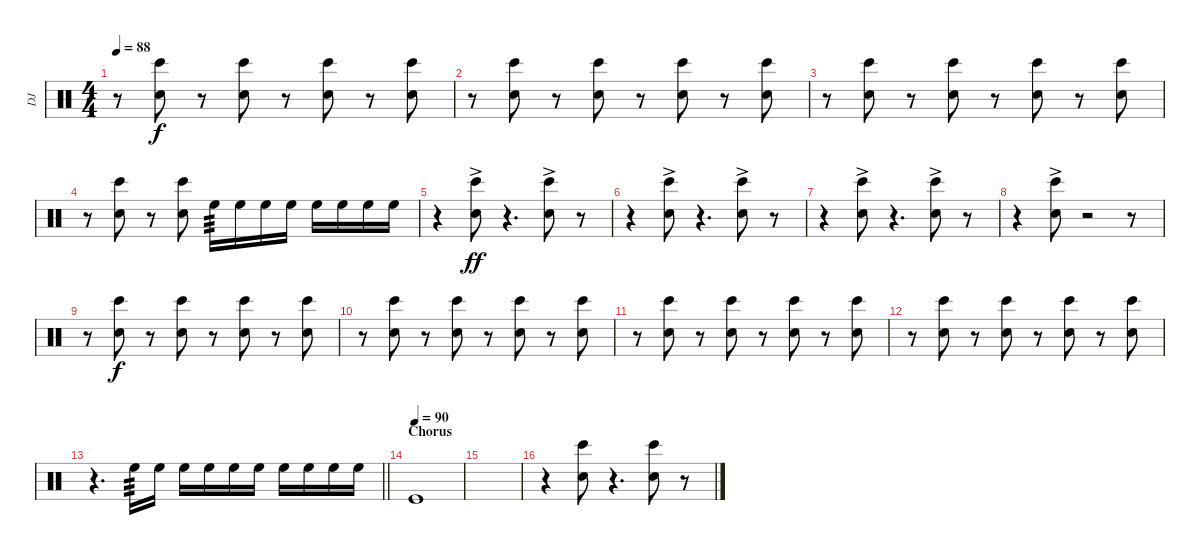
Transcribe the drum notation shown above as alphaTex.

\track ("DJ" "DJ") {instrument percussion}
\staff {score}
\articulation defaults
\ts (4 4)
\tempo 88
\clef neutral
\ks c
r.8{dy f} ("Bongo High (hit)" "Hand Clap (hit)").8 r.8 ("Bongo High (hit)" "Hand Clap (hit)").8 r.8 ("Bongo High (hit)" "Hand Clap (hit)").8 r.8 ("Bongo High (hit)" "Hand Clap (hit)").8 |
r.8 ("Bongo High (hit)" "Hand Clap (hit)").8 r.8 ("Bongo High (hit)" "Hand Clap (hit)").8 r.8 ("Bongo High (hit)" "Hand Clap (hit)").8 r.8 ("Bongo High (hit)" "Hand Clap (hit)").8 |
r.8 ("Bongo High (hit)" "Hand Clap (hit)").8 r.8 ("Bongo High (hit)" "Hand Clap (hit)").8 r.8 ("Bongo High (hit)" "Hand Clap (hit)").8 r.8 ("Bongo High (hit)" "Hand Clap (hit)").8 |
r.8 ("Bongo High (hit)" "Hand Clap (hit)").8 r.8 ("Bongo High (hit)" "Hand Clap (hit)").8 "High Floor Tom (hit)".16{tp 3} "High Floor Tom (hit)".16 "High Floor Tom (hit)".16 "High Floor Tom (hit)".16 "High Floor Tom (hit)".16 "High Floor Tom (hit)".16 "High Floor Tom (hit)".16 "High Floor Tom (hit)".16 |
r.4 ("Bongo High (hit)"{ac} "Hand Clap (hit)"{ac}).8{dy ff} r.4{d} ("Bongo High (hit)"{ac} "Hand Clap (hit)"{ac}).8 r.8 |
r.4 ("Bongo High (hit)"{ac} "Hand Clap (hit)"{ac}).8 r.4{d} ("Bongo High (hit)"{ac} "Hand Clap (hit)"{ac}).8 r.8 |
r.4 ("Bongo High (hit)"{ac} "Hand Clap (hit)"{ac}).8 r.4{d} ("Bongo High (hit)"{ac} "Hand Clap (hit)"{ac}).8 r.8 |
r.4 ("Bongo High (hit)"{ac} "Hand Clap (hit)"{ac}).8 r.2 r.8 |
r.8 ("Bongo High (hit)" "Hand Clap (hit)").8{dy f} r.8 ("Bongo High (hit)" "Hand Clap (hit)").8 r.8 ("Bongo High (hit)" "Hand Clap (hit)").8 r.8 ("Bongo High (hit)" "Hand Clap (hit)").8 |
r.8 ("Bongo High (hit)" "Hand Clap (hit)").8 r.8 ("Bongo High (hit)" "Hand Clap (hit)").8 r.8 ("Bongo High (hit)" "Hand Clap (hit)").8 r.8 ("Bongo High (hit)" "Hand Clap (hit)").8 |
r.8 ("Bongo High (hit)" "Hand Clap (hit)").8 r.8 ("Bongo High (hit)" "Hand Clap (hit)").8 r.8 ("Bongo High (hit)" "Hand Clap (hit)").8 r.8 ("Bongo High (hit)" "Hand Clap (hit)").8 |
r.8 ("Bongo High (hit)" "Hand Clap (hit)").8 r.8 ("Bongo High (hit)" "Hand Clap (hit)").8 r.8 ("Bongo High (hit)" "Hand Clap (hit)").8 r.8 ("Bongo High (hit)" "Hand Clap (hit)").8 |
\barLineRight lightlight
r.4{d} "High Floor Tom (hit)".16{tp 3} "High Floor Tom (hit)".16 "High Floor Tom (hit)".16 "High Floor Tom (hit)".16 "High Floor Tom (hit)".16 "High Floor Tom (hit)".16 "High Floor Tom (hit)".16 "High Floor Tom (hit)".16 "High Floor Tom (hit)".16 "High Floor Tom (hit)".16 |
\section ("" "Chorus")
\tempo (90)
"Kick (hit)".1 |
|
r.4 ("Bongo High (hit)" "Hand Clap (hit)").8 r.4{d} ("Bongo High (hit)" "Hand Clap (hit)").8 r.8
